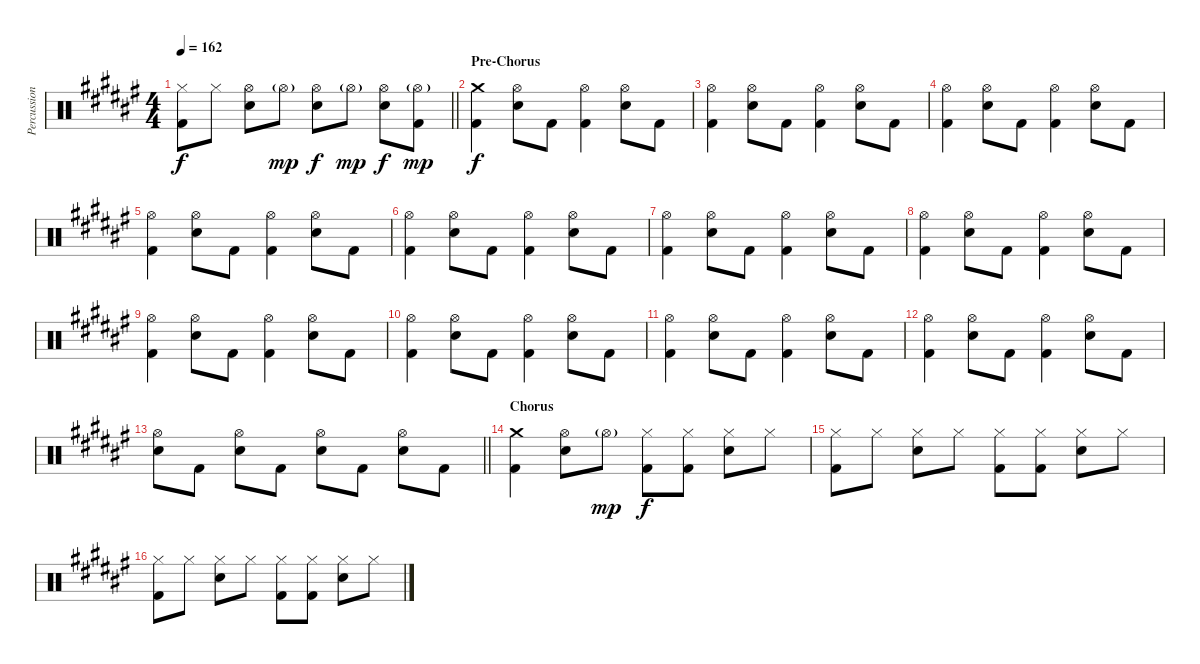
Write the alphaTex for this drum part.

\track ("Percussion" "Percussion") {instrument percussion}
\staff {score}
\articulation defaults
\ts (4 4)
\tempo 162
\clef neutral
\barLineRight lightlight
\ks f#
("Hi-Hat (closed)" "Kick (hit) 2").8{dy f} "Hi-Hat (closed)".8 ("Hi-Hat (open)" "Electric Snare (hit)").8 "Hi-Hat (open)"{g}.8{dy mp} ("Hi-Hat (open)" "Electric Snare (hit)").8{dy f} "Hi-Hat (open)"{g}.8{dy mp} ("Hi-Hat (open)" "Electric Snare (hit)").8{dy f} ("Hi-Hat (open)"{g} "Kick (hit) 2").8{dy mp} |
\section ("" "Pre-Chorus")
("Crash medium (hit)" "Kick (hit) 2").4{dy f} ("Hi-Hat (open)" "Electric Snare (hit)").8 "Kick (hit) 2".8 ("Hi-Hat (open)" "Kick (hit) 2").4 ("Hi-Hat (open)" "Electric Snare (hit)").8 "Kick (hit) 2".8 |
("Hi-Hat (open)" "Kick (hit) 2").4 ("Hi-Hat (open)" "Electric Snare (hit)").8 "Kick (hit) 2".8 ("Hi-Hat (open)" "Kick (hit) 2").4 ("Hi-Hat (open)" "Electric Snare (hit)").8 "Kick (hit) 2".8 |
("Hi-Hat (open)" "Kick (hit) 2").4 ("Hi-Hat (open)" "Electric Snare (hit)").8 "Kick (hit) 2".8 ("Hi-Hat (open)" "Kick (hit) 2").4 ("Hi-Hat (open)" "Electric Snare (hit)").8 "Kick (hit) 2".8 |
("Hi-Hat (open)" "Kick (hit) 2").4 ("Hi-Hat (open)" "Electric Snare (hit)").8 "Kick (hit) 2".8 ("Hi-Hat (open)" "Kick (hit) 2").4 ("Hi-Hat (open)" "Electric Snare (hit)").8 "Kick (hit) 2".8 |
("Hi-Hat (open)" "Kick (hit) 2").4 ("Hi-Hat (open)" "Electric Snare (hit)").8 "Kick (hit) 2".8 ("Hi-Hat (open)" "Kick (hit) 2").4 ("Hi-Hat (open)" "Electric Snare (hit)").8 "Kick (hit) 2".8 |
("Hi-Hat (open)" "Kick (hit) 2").4 ("Hi-Hat (open)" "Electric Snare (hit)").8 "Kick (hit) 2".8 ("Hi-Hat (open)" "Kick (hit) 2").4 ("Hi-Hat (open)" "Electric Snare (hit)").8 "Kick (hit) 2".8 |
("Hi-Hat (open)" "Kick (hit) 2").4 ("Hi-Hat (open)" "Electric Snare (hit)").8 "Kick (hit) 2".8 ("Hi-Hat (open)" "Kick (hit) 2").4 ("Hi-Hat (open)" "Electric Snare (hit)").8 "Kick (hit) 2".8 |
("Hi-Hat (open)" "Kick (hit) 2").4 ("Hi-Hat (open)" "Electric Snare (hit)").8 "Kick (hit) 2".8 ("Hi-Hat (open)" "Kick (hit) 2").4 ("Hi-Hat (open)" "Electric Snare (hit)").8 "Kick (hit) 2".8 |
("Hi-Hat (open)" "Kick (hit) 2").4 ("Hi-Hat (open)" "Electric Snare (hit)").8 "Kick (hit) 2".8 ("Hi-Hat (open)" "Kick (hit) 2").4 ("Hi-Hat (open)" "Electric Snare (hit)").8 "Kick (hit) 2".8 |
("Hi-Hat (open)" "Kick (hit) 2").4 ("Hi-Hat (open)" "Electric Snare (hit)").8 "Kick (hit) 2".8 ("Hi-Hat (open)" "Kick (hit) 2").4 ("Hi-Hat (open)" "Electric Snare (hit)").8 "Kick (hit) 2".8 |
("Hi-Hat (open)" "Kick (hit) 2").4 ("Hi-Hat (open)" "Electric Snare (hit)").8 "Kick (hit) 2".8 ("Hi-Hat (open)" "Kick (hit) 2").4 ("Hi-Hat (open)" "Electric Snare (hit)").8 "Kick (hit) 2".8 |
\barLineRight lightlight
("Hi-Hat (open)" "Electric Snare (hit)").8 "Kick (hit) 2".8 ("Hi-Hat (open)" "Electric Snare (hit)").8 "Kick (hit) 2".8 ("Hi-Hat (open)" "Electric Snare (hit)").8 "Kick (hit) 2".8 ("Hi-Hat (open)" "Electric Snare (hit)").8 "Kick (hit) 2".8 |
\section ("" "Chorus")
("Crash medium (hit)" "Kick (hit) 2").4 ("Hi-Hat (open)" "Electric Snare (hit)").8 "Hi-Hat (open)"{g}.8{dy mp} ("Hi-Hat (closed)" "Kick (hit) 2").8{dy f} ("Hi-Hat (closed)" "Kick (hit) 2").8 ("Hi-Hat (closed)" "Electric Snare (hit)").8 "Hi-Hat (closed)".8 |
("Hi-Hat (closed)" "Kick (hit) 2").8 "Hi-Hat (closed)".8 ("Hi-Hat (closed)" "Electric Snare (hit)").8 "Hi-Hat (closed)".8 ("Hi-Hat (closed)" "Kick (hit) 2").8 ("Hi-Hat (closed)" "Kick (hit) 2").8 ("Hi-Hat (closed)" "Electric Snare (hit)").8 "Hi-Hat (closed)".8 |
("Hi-Hat (closed)" "Kick (hit) 2").8 "Hi-Hat (closed)".8 ("Hi-Hat (closed)" "Electric Snare (hit)").8 "Hi-Hat (closed)".8 ("Hi-Hat (closed)" "Kick (hit) 2").8 ("Hi-Hat (closed)" "Kick (hit) 2").8 ("Hi-Hat (closed)" "Electric Snare (hit)").8 "Hi-Hat (closed)".8
